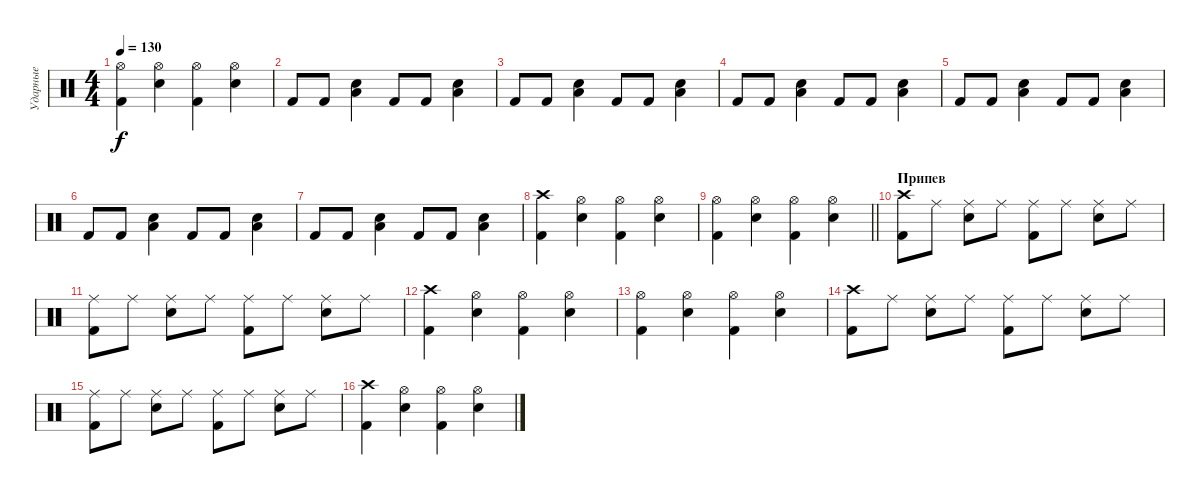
\track ("Ударные" "Ударные") {instrument percussion}
\staff {score}
\articulation defaults
\ts (4 4)
\tempo 130
\clef neutral
\ks c
("Hi-Hat (open)" "Kick (hit) 2").4{dy f} ("Hi-Hat (open)" "Snare (hit) 2").4 ("Hi-Hat (open)" "Kick (hit) 2").4 ("Hi-Hat (open)" "Snare (hit) 2").4 |
"Kick (hit) 2".8 "Kick (hit) 2".8 ("Low Tom (hit)" "Snare (hit) 2").4 "Kick (hit) 2".8 "Kick (hit) 2".8 ("Low Tom (hit)" "Snare (hit) 2").4 |
"Kick (hit) 2".8 "Kick (hit) 2".8 ("Low Tom (hit)" "Snare (hit) 2").4 "Kick (hit) 2".8 "Kick (hit) 2".8 ("Low Tom (hit)" "Snare (hit) 2").4 |
"Kick (hit) 2".8 "Kick (hit) 2".8 ("Low Tom (hit)" "Snare (hit) 2").4 "Kick (hit) 2".8 "Kick (hit) 2".8 ("Low Tom (hit)" "Snare (hit) 2").4 |
"Kick (hit) 2".8 "Kick (hit) 2".8 ("Low Tom (hit)" "Snare (hit) 2").4 "Kick (hit) 2".8 "Kick (hit) 2".8 ("Low Tom (hit)" "Snare (hit) 2").4 |
"Kick (hit) 2".8 "Kick (hit) 2".8 ("Low Tom (hit)" "Snare (hit) 2").4 "Kick (hit) 2".8 "Kick (hit) 2".8 ("Low Tom (hit)" "Snare (hit) 2").4 |
"Kick (hit) 2".8 "Kick (hit) 2".8 ("Low Tom (hit)" "Snare (hit) 2").4 "Kick (hit) 2".8 "Kick (hit) 2".8 ("Low Tom (hit)" "Snare (hit) 2").4 |
("Crash high (hit)" "Kick (hit) 2").4 ("Hi-Hat (open)" "Snare (hit) 2").4 ("Hi-Hat (open)" "Kick (hit) 2").4 ("Hi-Hat (open)" "Snare (hit) 2").4 |
\barLineRight lightlight
("Hi-Hat (open)" "Kick (hit) 2").4 ("Hi-Hat (open)" "Snare (hit) 2").4 ("Hi-Hat (open)" "Kick (hit) 2").4 ("Hi-Hat (open)" "Snare (hit) 2").4 |
\section ("" "Припев")
("Crash high (hit)" "Kick (hit) 2").8 "Ride (middle)".8 ("Ride (middle)" "Snare (hit) 2").8 "Ride (middle)".8 ("Ride (middle)" "Kick (hit) 2").8 "Ride (middle)".8 ("Ride (middle)" "Snare (hit) 2").8 "Ride (middle)".8 |
("Ride (middle)" "Kick (hit) 2").8 "Ride (middle)".8 ("Ride (middle)" "Snare (hit) 2").8 "Ride (middle)".8 ("Ride (middle)" "Kick (hit) 2").8 "Ride (middle)".8 ("Ride (middle)" "Snare (hit) 2").8 "Ride (middle)".8 |
("Crash high (hit)" "Kick (hit) 2").4 ("Hi-Hat (open)" "Snare (hit) 2").4 ("Hi-Hat (open)" "Kick (hit) 2").4 ("Hi-Hat (open)" "Snare (hit) 2").4 |
("Hi-Hat (open)" "Kick (hit) 2").4 ("Hi-Hat (open)" "Snare (hit) 2").4 ("Hi-Hat (open)" "Kick (hit) 2").4 ("Hi-Hat (open)" "Snare (hit) 2").4 |
("Crash high (hit)" "Kick (hit) 2").8 "Ride (middle)".8 ("Ride (middle)" "Snare (hit) 2").8 "Ride (middle)".8 ("Ride (middle)" "Kick (hit) 2").8 "Ride (middle)".8 ("Ride (middle)" "Snare (hit) 2").8 "Ride (middle)".8 |
("Ride (middle)" "Kick (hit) 2").8 "Ride (middle)".8 ("Ride (middle)" "Snare (hit) 2").8 "Ride (middle)".8 ("Ride (middle)" "Kick (hit) 2").8 "Ride (middle)".8 ("Ride (middle)" "Snare (hit) 2").8 "Ride (middle)".8 |
("Crash high (hit)" "Kick (hit) 2").4 ("Hi-Hat (open)" "Snare (hit) 2").4 ("Hi-Hat (open)" "Kick (hit) 2").4 ("Hi-Hat (open)" "Snare (hit) 2").4
